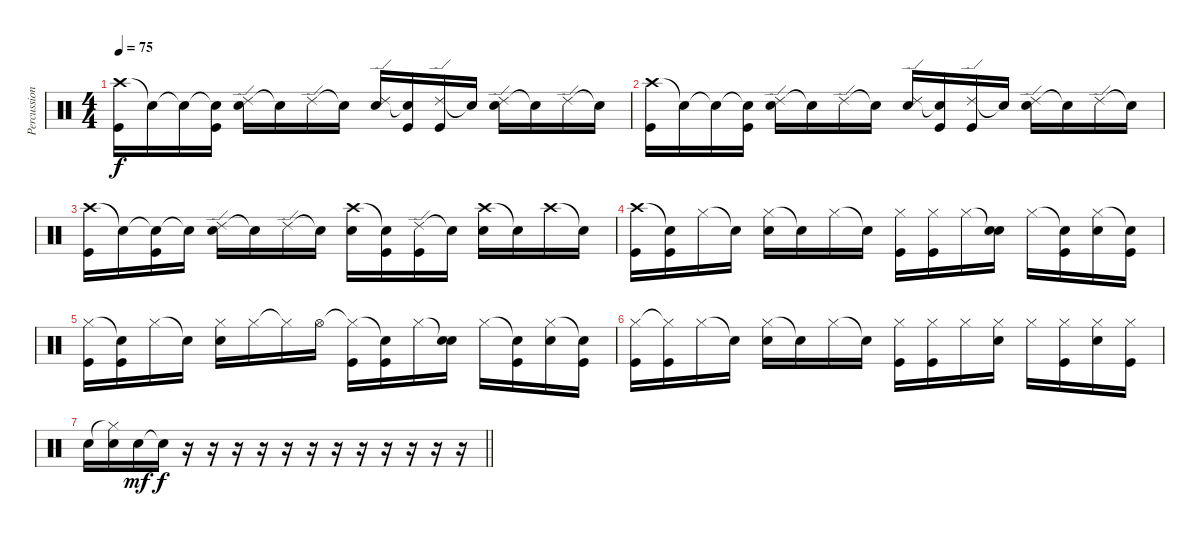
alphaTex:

\track ("Percussion" "Percussion") {instrument percussion}
\staff {score}
\articulation defaults
\ts (4 4)
\tempo 75
\clef neutral
\ks c
("Crash high (hit)" "Kick (hit)").16{dy f} "Snare (hit)"{t}.16 "Snare (hit)"{t}.16 ("Snare (hit)"{t} "Kick (hit)").16 ("Ride (edge) 2" "Electric Snare (hit)").16 "Snare (hit)"{t}.16 "Ride (edge) 2".16 "Snare (hit)"{t}.16 ("Ride (edge) 2" "Electric Snare (hit)").16 ("Snare (hit)"{t} "Kick (hit)").16 ("Ride (edge) 2" "Kick (hit)").16 "Snare (hit)"{t}.16 ("Ride (edge) 2" "Electric Snare (hit)").16 "Snare (hit)"{t}.16 "Ride (edge) 2".16 "Snare (hit)"{t}.16 |
("Crash high (hit)" "Kick (hit)").16 "Snare (hit)"{t}.16 "Snare (hit)"{t}.16 ("Snare (hit)"{t} "Kick (hit)").16 ("Ride (edge) 2" "Electric Snare (hit)").16 "Snare (hit)"{t}.16 "Ride (edge) 2".16 "Snare (hit)"{t}.16 ("Ride (edge) 2" "Electric Snare (hit)").16 ("Snare (hit)"{t} "Kick (hit)").16 ("Ride (edge) 2" "Kick (hit)").16 "Snare (hit)"{t}.16 ("Ride (edge) 2" "Electric Snare (hit)").16 "Snare (hit)"{t}.16 "Ride (edge) 2".16 "Snare (hit)"{t}.16 |
("Crash high (hit)" "Kick (hit)").16 "Snare (hit)"{t}.16 ("Snare (hit)"{t} "Kick (hit)").16 "Snare (hit)"{t}.16 ("Ride (edge) 2" "Electric Snare (hit)").16 "Snare (hit)"{t}.16 "Ride (edge) 2".16 "Snare (hit)"{t}.16 ("Crash high (hit)" "Electric Snare (hit)").16 ("Snare (hit)"{t} "Kick (hit)").16 ("Ride (edge) 2" "Kick (hit)").16 "Snare (hit)"{t}.16 ("Crash high (hit)" "Electric Snare (hit)").16 "Snare (hit)"{t}.16 "Crash high (hit)".16 "Snare (hit)"{t}.16 |
("Crash high (hit)" "Kick (hit)").16 ("Snare (hit)"{t} "Kick (hit)").16 "Hi-Hat (closed)".16 "Snare (hit)"{t}.16 ("Hi-Hat (closed)" "Electric Snare (hit)").16 "Snare (hit)"{t}.16 "Hi-Hat (closed)".16 "Snare (hit)"{t}.16 ("Hi-Hat (closed)" "Kick (hit)").16 ("Hi-Hat (closed)" "Kick (hit)").16 "Hi-Hat (closed)".16 ("Snare (hit)"{t} "Electric Snare (hit)").16 "Hi-Hat (closed)".16 ("Snare (hit)"{t} "Kick (hit)").16 ("Hi-Hat (closed)" "Electric Snare (hit)").16 ("Snare (hit)"{t} "Kick (hit)").16 |
("Hi-Hat (closed)" "Kick (hit)").16 ("Snare (hit)"{t} "Kick (hit)").16 "Hi-Hat (closed)".16 "Snare (hit)"{t}.16 ("Hi-Hat (closed)" "Electric Snare (hit)").16 "Hi-Hat (closed)".16 "Hi-Hat (closed)"{t}.16 "Hi-Hat (open)".16 ("Hi-Hat (closed)"{t} "Kick (hit)").16 ("Snare (hit)"{t} "Kick (hit)").16 "Hi-Hat (closed)".16 ("Snare (hit)"{t} "Electric Snare (hit)").16 "Hi-Hat (closed)".16 ("Snare (hit)"{t} "Kick (hit)").16 ("Hi-Hat (closed)" "Electric Snare (hit)").16 ("Snare (hit)"{t} "Kick (hit)").16 |
("Hi-Hat (closed)" "Kick (hit)").16 ("Hi-Hat (closed)"{t} "Kick (hit)").16 "Hi-Hat (closed)".16 "Snare (hit)"{t}.16 ("Hi-Hat (closed)" "Electric Snare (hit)").16 "Snare (hit)"{t}.16 "Hi-Hat (closed)".16 "Snare (hit)"{t}.16 ("Hi-Hat (closed)" "Kick (hit)").16 ("Hi-Hat (closed)" "Kick (hit)").16 "Hi-Hat (closed)".16 ("Hi-Hat (closed)" "Electric Snare (hit)").16 "Hi-Hat (closed)".16 ("Hi-Hat (closed)" "Kick (hit)").16 ("Hi-Hat (closed)" "Electric Snare (hit)").16 ("Hi-Hat (closed)" "Kick (hit)").16 |
\barLineRight lightlight "Electric Snare (hit)".16
("Hi-Hat (closed)"{t} "Electric Snare (hit)").16 "Electric Snare (hit)".16{dy mf} "Snare (hit)"{t}.16{dy f} r.16 r.16 r.16 r.16 r.16 r.16 r.16 r.16 r.16 r.16 r.16 r.16
